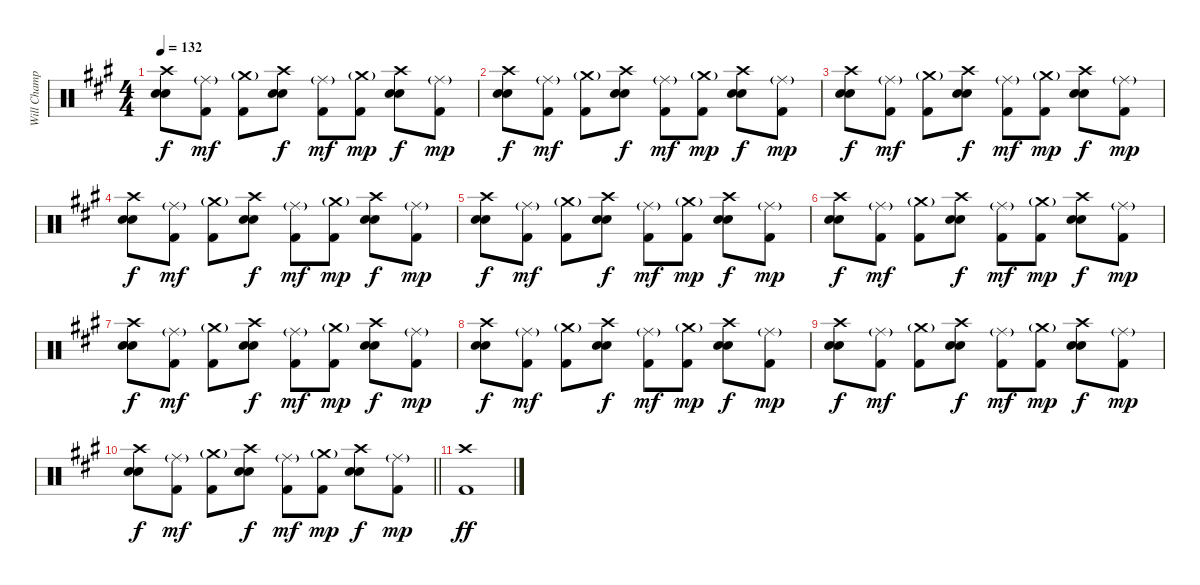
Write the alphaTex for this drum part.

\track ("Will Champion-Drums(percussion)" "Will Champ") {instrument percussion}
\staff {score}
\articulation defaults
\ts (4 4)
\tempo 132
\clef neutral
\ks a
("Crash high (hit)" "Electric Snare (hit)" "Snare (hit) 2").8{dy f} ("Ride (middle)"{g} "Kick (hit) 2").8{dy mf} ("Crash medium (hit)"{g} "Kick (hit) 2").8 ("Crash high (hit)" "Electric Snare (hit)" "Snare (hit) 2").8{dy f} ("Ride (middle)"{g} "Kick (hit) 2").8{dy mf} ("Crash medium (hit)"{g} "Kick (hit) 2").8{dy mp} ("Crash high (hit)" "Electric Snare (hit)" "Snare (hit) 2").8{dy f} ("Ride (middle)"{g} "Kick (hit) 2").8{dy mp} |
("Crash high (hit)" "Electric Snare (hit)" "Snare (hit) 2").8{dy f} ("Ride (middle)"{g} "Kick (hit) 2").8{dy mf} ("Crash medium (hit)"{g} "Kick (hit) 2").8 ("Crash high (hit)" "Electric Snare (hit)" "Snare (hit) 2").8{dy f} ("Ride (middle)"{g} "Kick (hit) 2").8{dy mf} ("Crash medium (hit)"{g} "Kick (hit) 2").8{dy mp} ("Crash high (hit)" "Electric Snare (hit)" "Snare (hit) 2").8{dy f} ("Ride (middle)"{g} "Kick (hit) 2").8{dy mp} |
("Crash high (hit)" "Electric Snare (hit)" "Snare (hit) 2").8{dy f} ("Ride (middle)"{g} "Kick (hit) 2").8{dy mf} ("Crash medium (hit)"{g} "Kick (hit) 2").8 ("Crash high (hit)" "Electric Snare (hit)" "Snare (hit) 2").8{dy f} ("Ride (middle)"{g} "Kick (hit) 2").8{dy mf} ("Crash medium (hit)"{g} "Kick (hit) 2").8{dy mp} ("Crash high (hit)" "Electric Snare (hit)" "Snare (hit) 2").8{dy f} ("Ride (middle)"{g} "Kick (hit) 2").8{dy mp} |
("Crash high (hit)" "Electric Snare (hit)" "Snare (hit) 2").8{dy f} ("Ride (middle)"{g} "Kick (hit) 2").8{dy mf} ("Crash medium (hit)"{g} "Kick (hit) 2").8 ("Crash high (hit)" "Electric Snare (hit)" "Snare (hit) 2").8{dy f} ("Ride (middle)"{g} "Kick (hit) 2").8{dy mf} ("Crash medium (hit)"{g} "Kick (hit) 2").8{dy mp} ("Crash high (hit)" "Electric Snare (hit)" "Snare (hit) 2").8{dy f} ("Ride (middle)"{g} "Kick (hit) 2").8{dy mp} |
("Crash high (hit)" "Electric Snare (hit)" "Snare (hit) 2").8{dy f} ("Ride (middle)"{g} "Kick (hit) 2").8{dy mf} ("Crash medium (hit)"{g} "Kick (hit) 2").8 ("Crash high (hit)" "Electric Snare (hit)" "Snare (hit) 2").8{dy f} ("Ride (middle)"{g} "Kick (hit) 2").8{dy mf} ("Crash medium (hit)"{g} "Kick (hit) 2").8{dy mp} ("Crash high (hit)" "Electric Snare (hit)" "Snare (hit) 2").8{dy f} ("Ride (middle)"{g} "Kick (hit) 2").8{dy mp} |
("Crash high (hit)" "Electric Snare (hit)" "Snare (hit) 2").8{dy f} ("Ride (middle)"{g} "Kick (hit) 2").8{dy mf} ("Crash medium (hit)"{g} "Kick (hit) 2").8 ("Crash high (hit)" "Electric Snare (hit)" "Snare (hit) 2").8{dy f} ("Ride (middle)"{g} "Kick (hit) 2").8{dy mf} ("Crash medium (hit)"{g} "Kick (hit) 2").8{dy mp} ("Crash high (hit)" "Electric Snare (hit)" "Snare (hit) 2").8{dy f} ("Ride (middle)"{g} "Kick (hit) 2").8{dy mp} |
("Crash high (hit)" "Electric Snare (hit)" "Snare (hit) 2").8{dy f} ("Ride (middle)"{g} "Kick (hit) 2").8{dy mf} ("Crash medium (hit)"{g} "Kick (hit) 2").8 ("Crash high (hit)" "Electric Snare (hit)" "Snare (hit) 2").8{dy f} ("Ride (middle)"{g} "Kick (hit) 2").8{dy mf} ("Crash medium (hit)"{g} "Kick (hit) 2").8{dy mp} ("Crash high (hit)" "Electric Snare (hit)" "Snare (hit) 2").8{dy f} ("Ride (middle)"{g} "Kick (hit) 2").8{dy mp} |
("Crash high (hit)" "Electric Snare (hit)" "Snare (hit) 2").8{dy f} ("Ride (middle)"{g} "Kick (hit) 2").8{dy mf} ("Crash medium (hit)"{g} "Kick (hit) 2").8 ("Crash high (hit)" "Electric Snare (hit)" "Snare (hit) 2").8{dy f} ("Ride (middle)"{g} "Kick (hit) 2").8{dy mf} ("Crash medium (hit)"{g} "Kick (hit) 2").8{dy mp} ("Crash high (hit)" "Electric Snare (hit)" "Snare (hit) 2").8{dy f} ("Ride (middle)"{g} "Kick (hit) 2").8{dy mp} |
("Crash high (hit)" "Electric Snare (hit)" "Snare (hit) 2").8{dy f} ("Ride (middle)"{g} "Kick (hit) 2").8{dy mf} ("Crash medium (hit)"{g} "Kick (hit) 2").8 ("Crash high (hit)" "Electric Snare (hit)" "Snare (hit) 2").8{dy f} ("Ride (middle)"{g} "Kick (hit) 2").8{dy mf} ("Crash medium (hit)"{g} "Kick (hit) 2").8{dy mp} ("Crash high (hit)" "Electric Snare (hit)" "Snare (hit) 2").8{dy f} ("Ride (middle)"{g} "Kick (hit) 2").8{dy mp} |
\barLineRight lightlight
("Crash high (hit)" "Electric Snare (hit)" "Snare (hit) 2").8{dy f} ("Ride (middle)"{g} "Kick (hit) 2").8{dy mf} ("Crash medium (hit)"{g} "Kick (hit) 2").8 ("Crash high (hit)" "Electric Snare (hit)" "Snare (hit) 2").8{dy f} ("Ride (middle)"{g} "Kick (hit) 2").8{dy mf} ("Crash medium (hit)"{g} "Kick (hit) 2").8{dy mp} ("Crash high (hit)" "Electric Snare (hit)" "Snare (hit) 2").8{dy f} ("Ride (middle)"{g} "Kick (hit) 2").8{dy mp} |
("Kick (hit) 2" "Crash high (hit)").1{dy ff}
